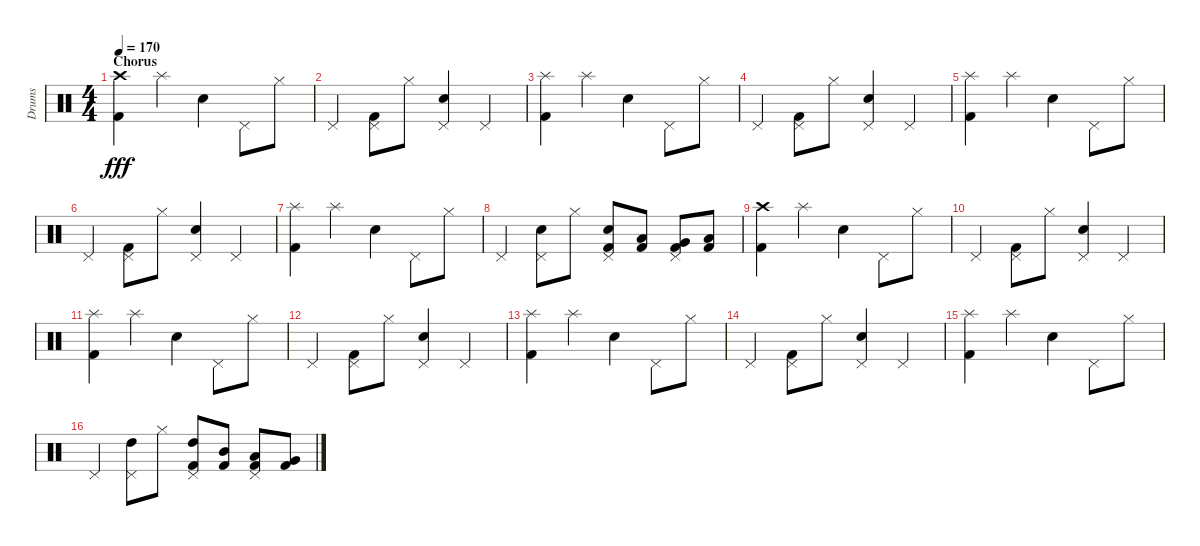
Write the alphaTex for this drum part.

\track ("Drums" "Drums") {instrument percussion}
\staff {score}
\articulation defaults
\ts (4 4)
\section ("" "Chorus")
\tempo 170
\clef neutral
\ks c
("Crash high (hit)" "Kick (hit) 2").4{dy fff volume 10} "Splash (hit)".4 "Snare (hit) 2".4 "Pedal Hi-Hat (hit)".8 "Hi-Hat (closed)".8 |
"Pedal Hi-Hat (hit)".4 ("Pedal Hi-Hat (hit)" "Kick (hit) 2").8 "Hi-Hat (closed)".8 ("Pedal Hi-Hat (hit)" "Snare (hit) 2").4 "Pedal Hi-Hat (hit)".4 |
("Splash (hit)" "Kick (hit) 2").4 "Splash (hit)".4 "Snare (hit) 2".4 "Pedal Hi-Hat (hit)".8 "Hi-Hat (closed)".8 |
"Pedal Hi-Hat (hit)".4 ("Pedal Hi-Hat (hit)" "Kick (hit) 2").8 "Hi-Hat (closed)".8 ("Pedal Hi-Hat (hit)" "Snare (hit) 2").4 "Pedal Hi-Hat (hit)".4 |
("Splash (hit)" "Kick (hit) 2").4 "Splash (hit)".4 "Snare (hit) 2".4 "Pedal Hi-Hat (hit)".8 "Hi-Hat (closed)".8 |
"Pedal Hi-Hat (hit)".4 ("Pedal Hi-Hat (hit)" "Kick (hit) 2").8 "Hi-Hat (closed)".8 ("Pedal Hi-Hat (hit)" "Snare (hit) 2").4 "Pedal Hi-Hat (hit)".4 |
("Splash (hit)" "Kick (hit) 2").4 "Splash (hit)".4 "Snare (hit) 2".4 "Pedal Hi-Hat (hit)".8 "Hi-Hat (closed)".8 |
"Pedal Hi-Hat (hit)".4 ("Pedal Hi-Hat (hit)" "Snare (hit) 2").8 "Hi-Hat (closed)".8 ("Pedal Hi-Hat (hit)" "Snare (hit) 2" "Kick (hit) 2").8 ("Low Tom (hit)" "Kick (hit) 2").8 ("Pedal Hi-Hat (hit)" "Very Low Tom (hit)" "Kick (hit) 2").8 ("Low Floor Tom (hit)" "Kick (hit) 2").8 |
("Crash high (hit)" "Kick (hit) 2").4 "Splash (hit)".4 "Snare (hit) 2".4 "Pedal Hi-Hat (hit)".8 "Hi-Hat (closed)".8 |
"Pedal Hi-Hat (hit)".4 ("Pedal Hi-Hat (hit)" "Kick (hit) 2").8 "Hi-Hat (closed)".8 ("Pedal Hi-Hat (hit)" "Snare (hit) 2").4 "Pedal Hi-Hat (hit)".4 |
("Splash (hit)" "Kick (hit) 2").4 "Splash (hit)".4 "Snare (hit) 2".4 "Pedal Hi-Hat (hit)".8 "Hi-Hat (closed)".8 |
"Pedal Hi-Hat (hit)".4 ("Pedal Hi-Hat (hit)" "Kick (hit) 2").8 "Hi-Hat (closed)".8 ("Pedal Hi-Hat (hit)" "Snare (hit) 2").4 "Pedal Hi-Hat (hit)".4 |
("Splash (hit)" "Kick (hit) 2").4 "Splash (hit)".4 "Snare (hit) 2".4 "Pedal Hi-Hat (hit)".8 "Hi-Hat (closed)".8 |
"Pedal Hi-Hat (hit)".4 ("Pedal Hi-Hat (hit)" "Kick (hit) 2").8 "Hi-Hat (closed)".8 ("Pedal Hi-Hat (hit)" "Snare (hit) 2").4 "Pedal Hi-Hat (hit)".4 |
("Splash (hit)" "Kick (hit) 2").4 "Splash (hit)".4 "Snare (hit) 2".4 "Pedal Hi-Hat (hit)".8 "Hi-Hat (closed)".8 |
"Pedal Hi-Hat (hit)".4 ("Pedal Hi-Hat (hit)" "High Tom (hit)").8 "Hi-Hat (closed)".8 ("Pedal Hi-Hat (hit)" "High Tom (hit)" "Kick (hit) 2").8 ("Mid Tom (hit)" "Kick (hit) 2").8 ("Pedal Hi-Hat (hit)" "Low Tom (hit)" "Kick (hit) 2").8 ("Very Low Tom (hit)" "Kick (hit) 2").8
